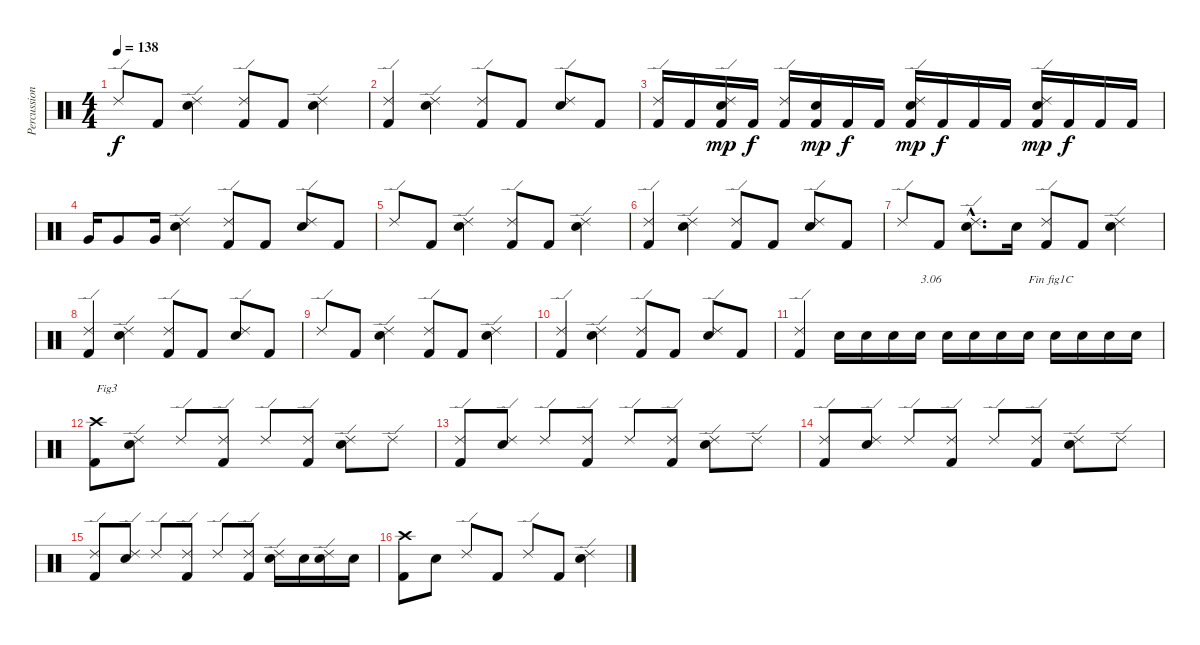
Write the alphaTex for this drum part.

\track ("Percussions" "Percussion") {instrument percussion}
\staff {score}
\articulation defaults
\ts (4 4)
\tempo 138
\clef neutral
\ks c "Ride (edge) 2".8{dy f} "Kick (hit) 2".8
("Electric Snare (hit)" "Ride (edge) 2").4 ("Kick (hit) 2" "Ride (edge) 2").8 "Kick (hit) 2".8 ("Electric Snare (hit)" "Ride (edge) 2").4 |
("Kick (hit) 2" "Ride (edge) 2").4 ("Electric Snare (hit)" "Ride (edge) 2").4 ("Kick (hit) 2" "Ride (edge) 2").8 "Kick (hit) 2".8 ("Electric Snare (hit)" "Ride (edge) 2").8 "Kick (hit) 2".8 |
("Kick (hit) 2" "Ride (edge) 2").16 "Kick (hit) 2".16 ("Kick (hit) 2" "Electric Snare (hit)" "Ride (edge) 2").16{dy mp} "Kick (hit) 2".16{dy f} ("Kick (hit) 2" "Ride (edge) 2").16 ("Kick (hit) 2" "Electric Snare (hit)").16{dy mp} "Kick (hit) 2".16{dy f} "Kick (hit) 2".16 ("Kick (hit) 2" "Electric Snare (hit)" "Ride (edge) 2").16{dy mp} "Kick (hit) 2".16{dy f} "Kick (hit) 2".16 "Kick (hit) 2".16 ("Kick (hit) 2" "Electric Snare (hit)" "Ride (edge) 2").16{dy mp} "Kick (hit) 2".16{dy f} "Kick (hit) 2".16 "Kick (hit) 2".16 |
"Very Low Tom (hit)".16 "Very Low Tom (hit)".8 "Very Low Tom (hit)".16 ("Electric Snare (hit)" "Ride (edge) 2").4 ("Kick (hit) 2" "Ride (edge) 2").8 "Kick (hit) 2".8 ("Electric Snare (hit)" "Ride (edge) 2").8 "Kick (hit) 2".8 |
"Ride (edge) 2".8 "Kick (hit) 2".8 ("Electric Snare (hit)" "Ride (edge) 2").4 ("Kick (hit) 2" "Ride (edge) 2").8 "Kick (hit) 2".8 ("Electric Snare (hit)" "Ride (edge) 2").4 |
("Kick (hit) 2" "Ride (edge) 2").4 ("Electric Snare (hit)" "Ride (edge) 2").4 ("Kick (hit) 2" "Ride (edge) 2").8 "Kick (hit) 2".8 ("Electric Snare (hit)" "Ride (edge) 2").8 "Kick (hit) 2".8 |
"Ride (edge) 2".8 "Kick (hit) 2".8 ("Electric Snare (hit)"{hac} "Ride (edge) 2"{hac}).8{d} "Electric Snare (hit)".16 ("Kick (hit) 2" "Ride (edge) 2").8 "Kick (hit) 2".8 ("Electric Snare (hit)" "Ride (edge) 2").4 |
("Kick (hit) 2" "Ride (edge) 2").4 ("Electric Snare (hit)" "Ride (edge) 2").4 ("Kick (hit) 2" "Ride (edge) 2").8 "Kick (hit) 2".8 ("Electric Snare (hit)" "Ride (edge) 2").8 "Kick (hit) 2".8 |
"Ride (edge) 2".8 "Kick (hit) 2".8 ("Electric Snare (hit)" "Ride (edge) 2").4 ("Kick (hit) 2" "Ride (edge) 2").8 "Kick (hit) 2".8 ("Electric Snare (hit)" "Ride (edge) 2").4 |
("Kick (hit) 2" "Ride (edge) 2").4 ("Electric Snare (hit)" "Ride (edge) 2").4 ("Kick (hit) 2" "Ride (edge) 2").8 "Kick (hit) 2".8 ("Electric Snare (hit)" "Ride (edge) 2").8 "Kick (hit) 2".8 |
("Kick (hit) 2" "Ride (edge) 2").4 "Electric Snare (hit)".16 "Electric Snare (hit)".16 "Electric Snare (hit)".16 "Electric Snare (hit)".16{txt "3.06"} "Electric Snare (hit)".16 "Electric Snare (hit)".16 "Electric Snare (hit)".16 "Electric Snare (hit)".16{txt "Fin fig1C"} "Electric Snare (hit)".16 "Electric Snare (hit)".16 "Electric Snare (hit)".16 "Electric Snare (hit)".16 |
("Kick (hit) 2" "Crash high (hit)").8{txt "Fig3"} ("Electric Snare (hit)" "Ride (edge) 2").8 "Ride (edge) 2".8 ("Kick (hit) 2" "Ride (edge) 2").8 "Ride (edge) 2".8 ("Kick (hit) 2" "Ride (edge) 2").8 ("Electric Snare (hit)" "Ride (edge) 2").8 "Ride (edge) 2".8 |
("Kick (hit) 2" "Ride (edge) 2").8 ("Electric Snare (hit)" "Ride (edge) 2").8 "Ride (edge) 2".8 ("Kick (hit) 2" "Ride (edge) 2").8 "Ride (edge) 2".8 ("Kick (hit) 2" "Ride (edge) 2").8 ("Electric Snare (hit)" "Ride (edge) 2").8 "Ride (edge) 2".8 |
("Kick (hit) 2" "Ride (edge) 2").8 ("Electric Snare (hit)" "Ride (edge) 2").8 "Ride (edge) 2".8 ("Kick (hit) 2" "Ride (edge) 2").8 "Ride (edge) 2".8 ("Kick (hit) 2" "Ride (edge) 2").8 ("Electric Snare (hit)" "Ride (edge) 2").8 "Ride (edge) 2".8 |
("Kick (hit) 2" "Ride (edge) 2").8 ("Electric Snare (hit)" "Ride (edge) 2").8 "Ride (edge) 2".8 ("Kick (hit) 2" "Ride (edge) 2").8 "Ride (edge) 2".8 ("Kick (hit) 2" "Ride (edge) 2").8 ("Electric Snare (hit)" "Ride (edge) 2").16 "Electric Snare (hit)".16 ("Electric Snare (hit)" "Ride (edge) 2").16 "Electric Snare (hit)".16 |
("Kick (hit) 2" "Crash high (hit)").8 "Electric Snare (hit)".8 "Ride (edge) 2".8 "Kick (hit) 2".8 "Ride (edge) 2".8 "Kick (hit) 2".8 ("Electric Snare (hit)" "Ride (edge) 2").4
